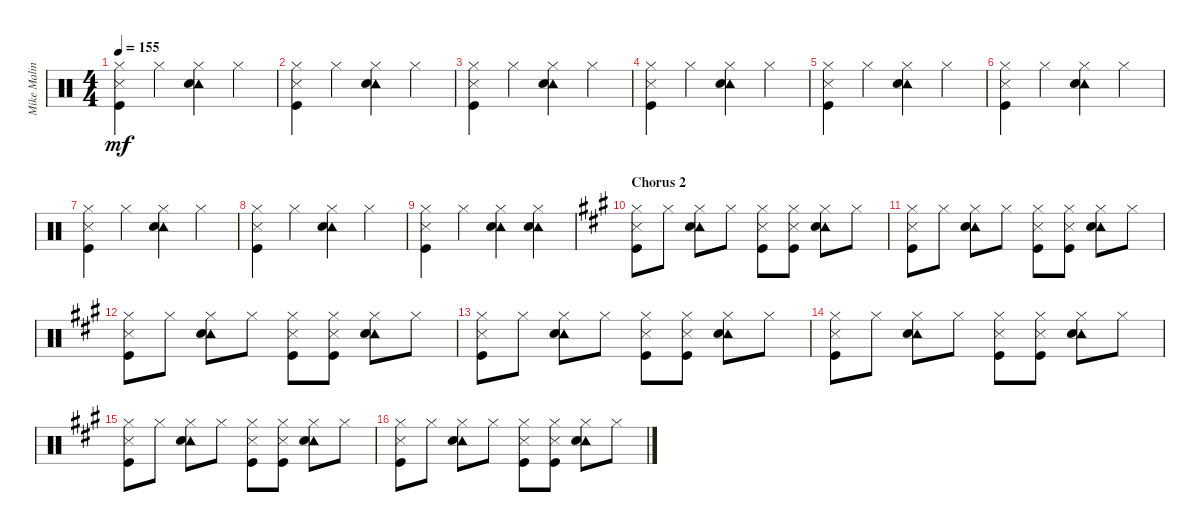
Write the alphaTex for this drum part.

\track ("Mike Malinin - Drums" "Mike Malin") {instrument percussion}
\staff {score}
\articulation defaults
\ts (4 4)
\tempo 155
\clef neutral
\ks c
("Hi-Hat (closed)" "Metronome (hit)" "Kick (hit)").4{dy mf} "Hi-Hat (closed)".4 ("Tambourine (hit)" "Hi-Hat (closed)" "Electric Snare (hit)").4 "Hi-Hat (closed)".4 |
("Hi-Hat (closed)" "Metronome (hit)" "Kick (hit)").4 "Hi-Hat (closed)".4 ("Tambourine (hit)" "Hi-Hat (closed)" "Electric Snare (hit)").4 "Hi-Hat (closed)".4 |
("Hi-Hat (closed)" "Metronome (hit)" "Kick (hit)").4 "Hi-Hat (closed)".4 ("Tambourine (hit)" "Hi-Hat (closed)" "Electric Snare (hit)").4 "Hi-Hat (closed)".4 |
("Hi-Hat (closed)" "Metronome (hit)" "Kick (hit)").4 "Hi-Hat (closed)".4 ("Tambourine (hit)" "Hi-Hat (closed)" "Electric Snare (hit)").4 "Hi-Hat (closed)".4 |
("Hi-Hat (closed)" "Metronome (hit)" "Kick (hit)").4 "Hi-Hat (closed)".4 ("Tambourine (hit)" "Hi-Hat (closed)" "Electric Snare (hit)").4 "Hi-Hat (closed)".4 |
("Hi-Hat (closed)" "Metronome (hit)" "Kick (hit)").4 "Hi-Hat (closed)".4 ("Tambourine (hit)" "Hi-Hat (closed)" "Electric Snare (hit)").4 "Hi-Hat (closed)".4 |
("Hi-Hat (closed)" "Metronome (hit)" "Kick (hit)").4 "Hi-Hat (closed)".4 ("Tambourine (hit)" "Hi-Hat (closed)" "Electric Snare (hit)").4 "Hi-Hat (closed)".4 |
("Hi-Hat (closed)" "Metronome (hit)" "Kick (hit)").4 "Hi-Hat (closed)".4 ("Tambourine (hit)" "Hi-Hat (closed)" "Electric Snare (hit)").4 "Hi-Hat (closed)".4 |
("Hi-Hat (closed)" "Metronome (hit)" "Kick (hit)").4 "Hi-Hat (closed)".4 ("Tambourine (hit)" "Hi-Hat (closed)" "Electric Snare (hit)").4 ("Tambourine (hit)" "Hi-Hat (closed)" "Electric Snare (hit)").4 |
\section ("" "Chorus 2")
\ks a
("Hi-Hat (closed)" "Metronome (hit)" "Kick (hit)").8 "Hi-Hat (closed)".8 ("Tambourine (hit)" "Hi-Hat (closed)" "Electric Snare (hit)").8 "Hi-Hat (closed)".8 ("Hi-Hat (closed)" "Metronome (hit)" "Kick (hit)").8 ("Hi-Hat (closed)" "Metronome (hit)" "Kick (hit)").8 ("Tambourine (hit)" "Hi-Hat (closed)" "Electric Snare (hit)").8 "Hi-Hat (closed)".8 |
("Hi-Hat (closed)" "Metronome (hit)" "Kick (hit)").8 "Hi-Hat (closed)".8 ("Tambourine (hit)" "Hi-Hat (closed)" "Electric Snare (hit)").8 "Hi-Hat (closed)".8 ("Hi-Hat (closed)" "Metronome (hit)" "Kick (hit)").8 ("Hi-Hat (closed)" "Metronome (hit)" "Kick (hit)").8 ("Tambourine (hit)" "Hi-Hat (closed)" "Electric Snare (hit)").8 "Hi-Hat (closed)".8 |
("Hi-Hat (closed)" "Metronome (hit)" "Kick (hit)").8 "Hi-Hat (closed)".8 ("Tambourine (hit)" "Hi-Hat (closed)" "Electric Snare (hit)").8 "Hi-Hat (closed)".8 ("Hi-Hat (closed)" "Metronome (hit)" "Kick (hit)").8 ("Hi-Hat (closed)" "Metronome (hit)" "Kick (hit)").8 ("Tambourine (hit)" "Hi-Hat (closed)" "Electric Snare (hit)").8 "Hi-Hat (closed)".8 |
("Hi-Hat (closed)" "Metronome (hit)" "Kick (hit)").8 "Hi-Hat (closed)".8 ("Tambourine (hit)" "Hi-Hat (closed)" "Electric Snare (hit)").8 "Hi-Hat (closed)".8 ("Hi-Hat (closed)" "Metronome (hit)" "Kick (hit)").8 ("Hi-Hat (closed)" "Metronome (hit)" "Kick (hit)").8 ("Tambourine (hit)" "Hi-Hat (closed)" "Electric Snare (hit)").8 "Hi-Hat (closed)".8 |
("Hi-Hat (closed)" "Metronome (hit)" "Kick (hit)").8 "Hi-Hat (closed)".8 ("Tambourine (hit)" "Hi-Hat (closed)" "Electric Snare (hit)").8 "Hi-Hat (closed)".8 ("Hi-Hat (closed)" "Metronome (hit)" "Kick (hit)").8 ("Hi-Hat (closed)" "Metronome (hit)" "Kick (hit)").8 ("Tambourine (hit)" "Hi-Hat (closed)" "Electric Snare (hit)").8 "Hi-Hat (closed)".8 |
("Hi-Hat (closed)" "Metronome (hit)" "Kick (hit)").8 "Hi-Hat (closed)".8 ("Tambourine (hit)" "Hi-Hat (closed)" "Electric Snare (hit)").8 "Hi-Hat (closed)".8 ("Hi-Hat (closed)" "Metronome (hit)" "Kick (hit)").8 ("Hi-Hat (closed)" "Metronome (hit)" "Kick (hit)").8 ("Tambourine (hit)" "Hi-Hat (closed)" "Electric Snare (hit)").8 "Hi-Hat (closed)".8 |
("Hi-Hat (closed)" "Metronome (hit)" "Kick (hit)").8 "Hi-Hat (closed)".8 ("Tambourine (hit)" "Hi-Hat (closed)" "Electric Snare (hit)").8 "Hi-Hat (closed)".8 ("Hi-Hat (closed)" "Metronome (hit)" "Kick (hit)").8 ("Hi-Hat (closed)" "Metronome (hit)" "Kick (hit)").8 ("Tambourine (hit)" "Hi-Hat (closed)" "Electric Snare (hit)").8 "Hi-Hat (closed)".8
